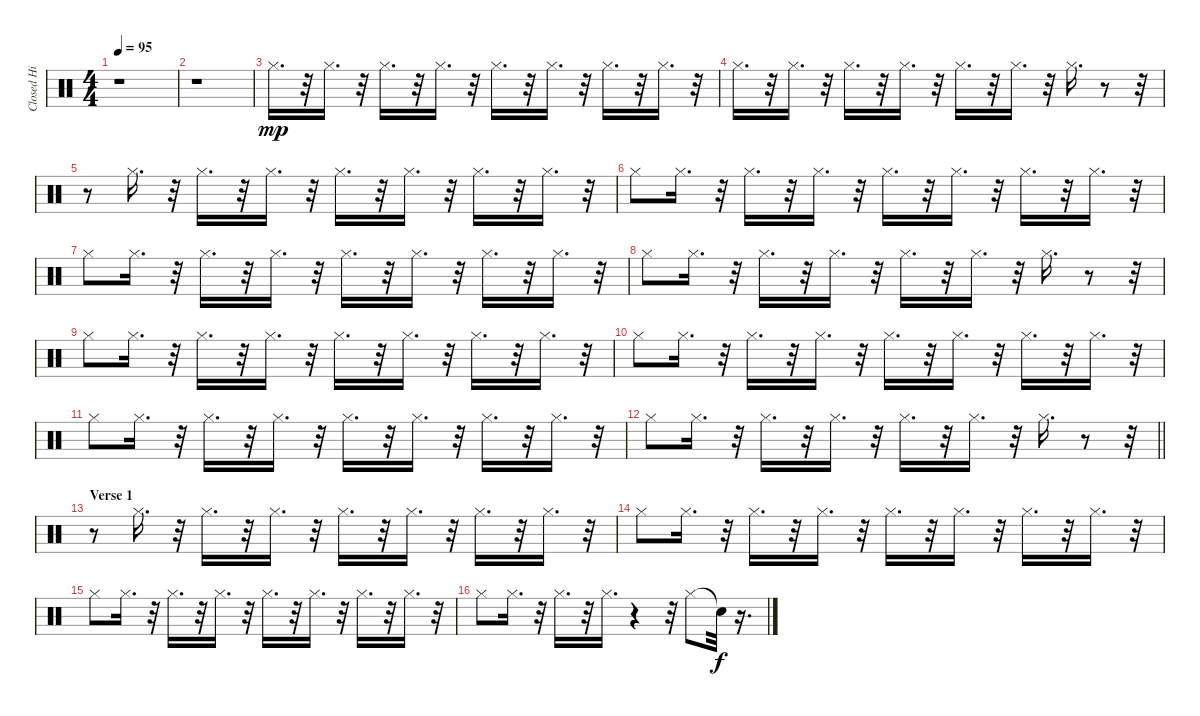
\track ("Closed Hi Hat" "Closed Hi ") {instrument percussion}
\staff {score}
\articulation defaults
\ts (4 4)
\tempo 95
\clef neutral
\ks c
r.1{dy mp} |
r.1 |
"Hi-Hat (closed)".16{d} r.32 "Hi-Hat (closed)".16{d} r.32 "Hi-Hat (closed)".16{d} r.32 "Hi-Hat (closed)".16{d} r.32 "Hi-Hat (closed)".16{d} r.32 "Hi-Hat (closed)".16{d} r.32 "Hi-Hat (closed)".16{d} r.32 "Hi-Hat (closed)".16{d} r.32 |
"Hi-Hat (closed)".16{d} r.32 "Hi-Hat (closed)".16{d} r.32 "Hi-Hat (closed)".16{d} r.32 "Hi-Hat (closed)".16{d} r.32 "Hi-Hat (closed)".16{d} r.32 "Hi-Hat (closed)".16{d} r.32 "Hi-Hat (closed)".16{d} r.8 r.32 |
r.8 "Hi-Hat (closed)".16{d} r.32 "Hi-Hat (closed)".16{d} r.32 "Hi-Hat (closed)".16{d} r.32 "Hi-Hat (closed)".16{d} r.32 "Hi-Hat (closed)".16{d} r.32 "Hi-Hat (closed)".16{d} r.32 "Hi-Hat (closed)".16{d} r.32 |
"Hi-Hat (closed)".8 "Hi-Hat (closed)".16{d} r.32 "Hi-Hat (closed)".16{d} r.32 "Hi-Hat (closed)".16{d} r.32 "Hi-Hat (closed)".16{d} r.32 "Hi-Hat (closed)".16{d} r.32 "Hi-Hat (closed)".16{d} r.32 "Hi-Hat (closed)".16{d} r.32 |
"Hi-Hat (closed)".8 "Hi-Hat (closed)".16{d} r.32 "Hi-Hat (closed)".16{d} r.32 "Hi-Hat (closed)".16{d} r.32 "Hi-Hat (closed)".16{d} r.32 "Hi-Hat (closed)".16{d} r.32 "Hi-Hat (closed)".16{d} r.32 "Hi-Hat (closed)".16{d} r.32 |
"Hi-Hat (closed)".8 "Hi-Hat (closed)".16{d} r.32 "Hi-Hat (closed)".16{d} r.32 "Hi-Hat (closed)".16{d} r.32 "Hi-Hat (closed)".16{d} r.32 "Hi-Hat (closed)".16{d} r.32 "Hi-Hat (closed)".16{d} r.8 r.32 |
"Hi-Hat (closed)".8 "Hi-Hat (closed)".16{d} r.32 "Hi-Hat (closed)".16{d} r.32 "Hi-Hat (closed)".16{d} r.32 "Hi-Hat (closed)".16{d} r.32 "Hi-Hat (closed)".16{d} r.32 "Hi-Hat (closed)".16{d} r.32 "Hi-Hat (closed)".16{d} r.32 |
"Hi-Hat (closed)".8 "Hi-Hat (closed)".16{d} r.32 "Hi-Hat (closed)".16{d} r.32 "Hi-Hat (closed)".16{d} r.32 "Hi-Hat (closed)".16{d} r.32 "Hi-Hat (closed)".16{d} r.32 "Hi-Hat (closed)".16{d} r.32 "Hi-Hat (closed)".16{d} r.32 |
"Hi-Hat (closed)".8 "Hi-Hat (closed)".16{d} r.32 "Hi-Hat (closed)".16{d} r.32 "Hi-Hat (closed)".16{d} r.32 "Hi-Hat (closed)".16{d} r.32 "Hi-Hat (closed)".16{d} r.32 "Hi-Hat (closed)".16{d} r.32 "Hi-Hat (closed)".16{d} r.32 |
\barLineRight lightlight "Hi-Hat (closed)".8 "Hi-Hat (closed)".16{d}
r.32 "Hi-Hat (closed)".16{d} r.32 "Hi-Hat (closed)".16{d} r.32 "Hi-Hat (closed)".16{d} r.32 "Hi-Hat (closed)".16{d} r.32 "Hi-Hat (closed)".16{d} r.8 r.32 |
\section ("" "Verse 1")
r.8 "Hi-Hat (closed)".16{d} r.32 "Hi-Hat (closed)".16{d} r.32 "Hi-Hat (closed)".16{d} r.32 "Hi-Hat (closed)".16{d} r.32 "Hi-Hat (closed)".16{d} r.32 "Hi-Hat (closed)".16{d} r.32 "Hi-Hat (closed)".16{d} r.32 |
"Hi-Hat (closed)".8 "Hi-Hat (closed)".16{d} r.32 "Hi-Hat (closed)".16{d} r.32 "Hi-Hat (closed)".16{d} r.32 "Hi-Hat (closed)".16{d} r.32 "Hi-Hat (closed)".16{d} r.32 "Hi-Hat (closed)".16{d} r.32 "Hi-Hat (closed)".16{d} r.32 |
"Hi-Hat (closed)".8 "Hi-Hat (closed)".16{d} r.32 "Hi-Hat (closed)".16{d} r.32 "Hi-Hat (closed)".16{d} r.32 "Hi-Hat (closed)".16{d} r.32 "Hi-Hat (closed)".16{d} r.32 "Hi-Hat (closed)".16{d} r.32 "Hi-Hat (closed)".16{d} r.32 |
"Hi-Hat (closed)".8 "Hi-Hat (closed)".16{d} r.32 "Hi-Hat (closed)".16{d} r.32 "Hi-Hat (closed)".16{d} r.4 r.32 "Hi-Hat (closed)".8 "Snare (hit)"{t}.32{dy f} r.16{d}
